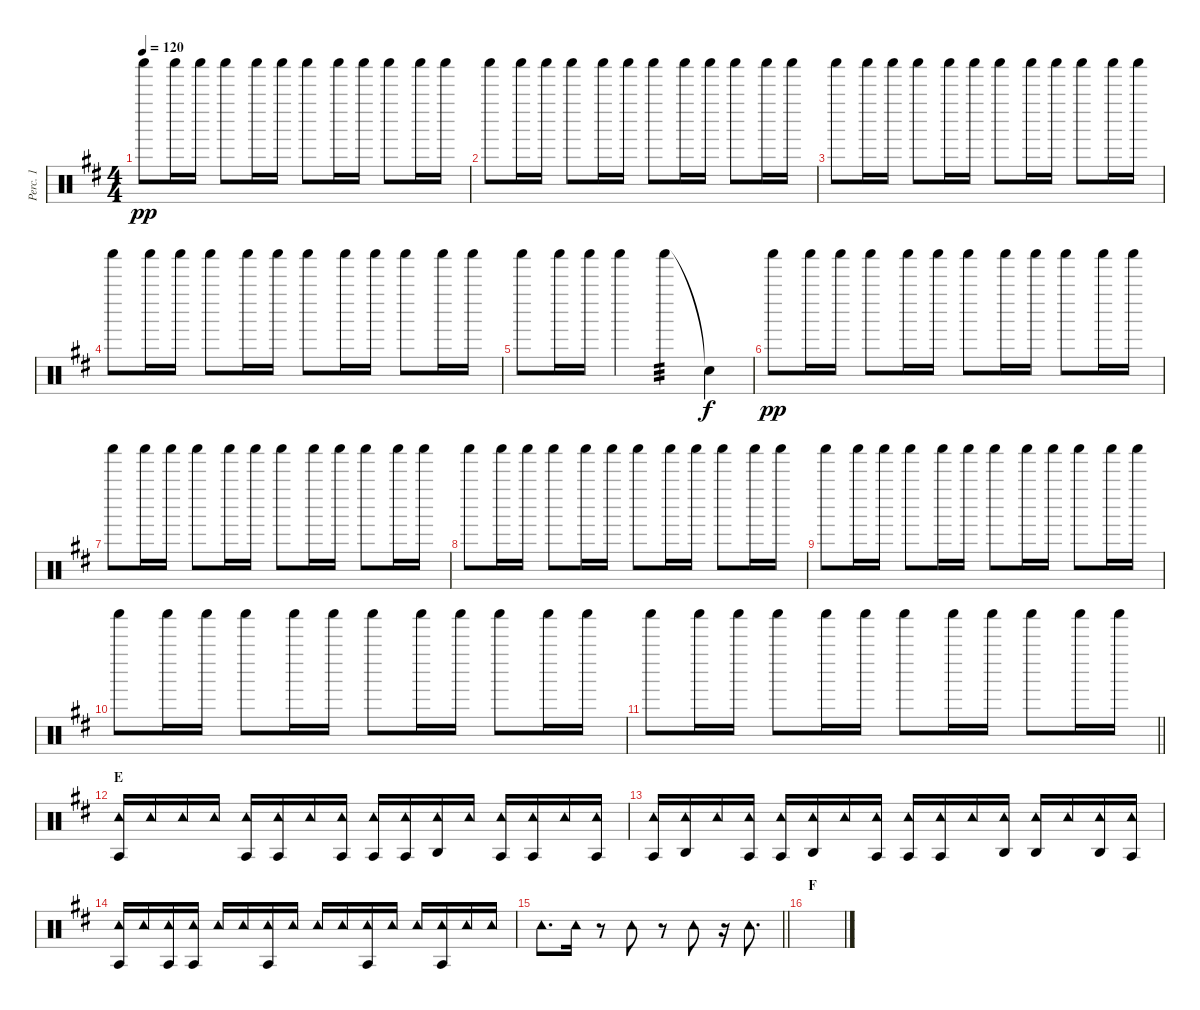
\track ("Perc. 1" "Perc. 1") {instrument percussion}
\staff {score}
\articulation defaults
\ts (4 4)
\tempo 120
\clef neutral
\ks d "Shaker (hit)".8{dy pp} "Shaker (hit)".16 "Shaker (hit)".16 "Shaker (hit)".8 "Shaker (hit)".16 "Shaker (hit)".16 "Shaker (hit)".8 "Shaker (hit)".16 "Shaker (hit)".16 "Shaker (hit)".8 "Shaker (hit)".16 "Shaker (hit)".16
|
"Shaker (hit)".8 "Shaker (hit)".16 "Shaker (hit)".16 "Shaker (hit)".8 "Shaker (hit)".16 "Shaker (hit)".16 "Shaker (hit)".8 "Shaker (hit)".16 "Shaker (hit)".16 "Shaker (hit)".8 "Shaker (hit)".16 "Shaker (hit)".16 |
"Shaker (hit)".8 "Shaker (hit)".16 "Shaker (hit)".16 "Shaker (hit)".8 "Shaker (hit)".16 "Shaker (hit)".16 "Shaker (hit)".8 "Shaker (hit)".16 "Shaker (hit)".16 "Shaker (hit)".8 "Shaker (hit)".16 "Shaker (hit)".16 |
"Shaker (hit)".8 "Shaker (hit)".16 "Shaker (hit)".16 "Shaker (hit)".8 "Shaker (hit)".16 "Shaker (hit)".16 "Shaker (hit)".8 "Shaker (hit)".16 "Shaker (hit)".16 "Shaker (hit)".8 "Shaker (hit)".16 "Shaker (hit)".16 |
"Shaker (hit)".8 "Shaker (hit)".16 "Shaker (hit)".16 "Shaker (hit)".4 "Shaker (hit)".4{tp 3} "Snare (hit)"{t}.4{dy f} |
"Shaker (hit)".8{dy pp} "Shaker (hit)".16 "Shaker (hit)".16 "Shaker (hit)".8 "Shaker (hit)".16 "Shaker (hit)".16 "Shaker (hit)".8 "Shaker (hit)".16 "Shaker (hit)".16 "Shaker (hit)".8 "Shaker (hit)".16 "Shaker (hit)".16 |
"Shaker (hit)".8 "Shaker (hit)".16 "Shaker (hit)".16 "Shaker (hit)".8 "Shaker (hit)".16 "Shaker (hit)".16 "Shaker (hit)".8 "Shaker (hit)".16 "Shaker (hit)".16 "Shaker (hit)".8 "Shaker (hit)".16 "Shaker (hit)".16 |
"Shaker (hit)".8 "Shaker (hit)".16 "Shaker (hit)".16 "Shaker (hit)".8 "Shaker (hit)".16 "Shaker (hit)".16 "Shaker (hit)".8 "Shaker (hit)".16 "Shaker (hit)".16 "Shaker (hit)".8 "Shaker (hit)".16 "Shaker (hit)".16 |
"Shaker (hit)".8 "Shaker (hit)".16 "Shaker (hit)".16 "Shaker (hit)".8 "Shaker (hit)".16 "Shaker (hit)".16 "Shaker (hit)".8 "Shaker (hit)".16 "Shaker (hit)".16 "Shaker (hit)".8 "Shaker (hit)".16 "Shaker (hit)".16 |
"Shaker (hit)".8 "Shaker (hit)".16 "Shaker (hit)".16 "Shaker (hit)".8 "Shaker (hit)".16 "Shaker (hit)".16 "Shaker (hit)".8 "Shaker (hit)".16 "Shaker (hit)".16 "Shaker (hit)".8 "Shaker (hit)".16 "Shaker (hit)".16 |
\barLineRight lightlight "Shaker (hit)".8 "Shaker (hit)".16 "Shaker (hit)".16 "Shaker (hit)".8 "Shaker (hit)".16 "Shaker (hit)".16 "Shaker (hit)".8 "Shaker (hit)".16 "Shaker (hit)".16 "Shaker (hit)".8 "Shaker (hit)".16 "Shaker (hit)".16
|
\section ("" "E")
("Tambourine (hit)" "Agogo tow (hit)").16 "Tambourine (hit)".16 "Tambourine (hit)".16 "Tambourine (hit)".16 ("Tambourine (hit)" "Agogo tow (hit)").16 ("Tambourine (hit)" "Agogo tow (hit)").16 "Tambourine (hit)".16 ("Tambourine (hit)" "Agogo tow (hit)").16 ("Tambourine (hit)" "Agogo tow (hit)").16 ("Tambourine (hit)" "Agogo tow (hit)").16 ("Tambourine (hit)" "Agogo high (hit)").16 "Tambourine (hit)".16 ("Tambourine (hit)" "Agogo tow (hit)").16 ("Tambourine (hit)" "Agogo tow (hit)").16 "Tambourine (hit)".16 ("Tambourine (hit)" "Agogo tow (hit)").16 |
("Tambourine (hit)" "Agogo tow (hit)").16 ("Tambourine (hit)" "Agogo high (hit)").16 "Tambourine (hit)".16 ("Tambourine (hit)" "Agogo tow (hit)").16 ("Tambourine (hit)" "Agogo tow (hit)").16 ("Tambourine (hit)" "Agogo high (hit)").16 "Tambourine (hit)".16 ("Tambourine (hit)" "Agogo tow (hit)").16 ("Tambourine (hit)" "Agogo tow (hit)").16 ("Tambourine (hit)" "Agogo tow (hit)").16 "Tambourine (hit)".16 ("Tambourine (hit)" "Agogo high (hit)").16 ("Tambourine (hit)" "Agogo high (hit)").16 "Tambourine (hit)".16 ("Tambourine (hit)" "Agogo high (hit)").16 ("Tambourine (hit)" "Agogo tow (hit)").16 |
("Tambourine (hit)" "Agogo tow (hit)").16 "Tambourine (hit)".16 ("Tambourine (hit)" "Agogo tow (hit)").16 ("Tambourine (hit)" "Agogo tow (hit)").16 "Tambourine (hit)".16 "Tambourine (hit)".16 ("Tambourine (hit)" "Agogo tow (hit)").16 "Tambourine (hit)".16 "Tambourine (hit)".16 "Tambourine (hit)".16 ("Tambourine (hit)" "Agogo tow (hit)").16 "Tambourine (hit)".16 "Tambourine (hit)".16 ("Tambourine (hit)" "Agogo tow (hit)").16 "Tambourine (hit)".16 "Tambourine (hit)".16 |
\barLineRight lightlight "Tambourine (hit)".8{d} "Tambourine (hit)".16
r.8 "Tambourine (hit)".8 r.8 "Tambourine (hit)".8 r.16 "Tambourine (hit)".8{d} |
\section ("" "F")
